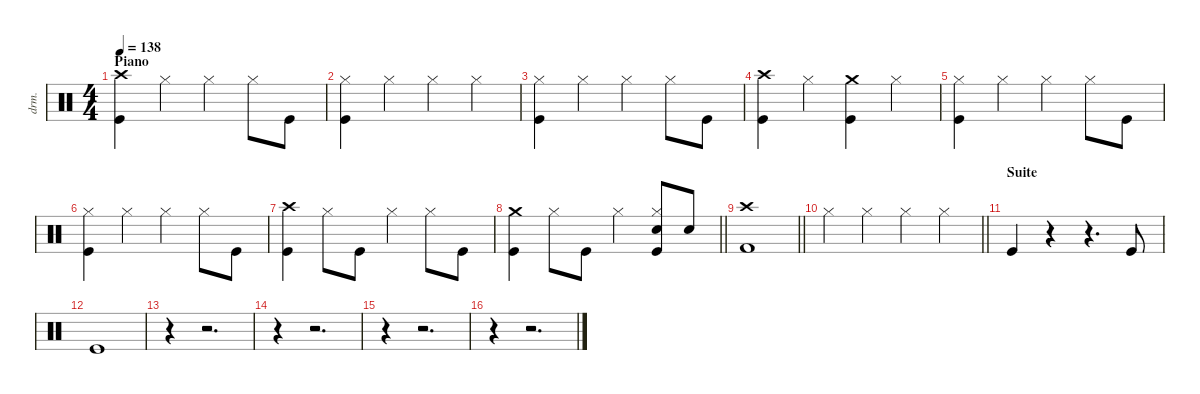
\defaultSystemsLayout 4
\hideDynamics
\bracketExtendMode nobrackets
\track ("Percussions" "drm.") {instrument percussion}
\staff {score}
\articulation defaults
\ts (4 4)
\section ("" "Piano")
\tempo 138
\clef neutral
\ks aminor
("Crash high (hit)" "Kick (hit)").4{dy f} "Hi-Hat (closed)".4 "Hi-Hat (closed)".4 "Hi-Hat (closed)".8 "Kick (hit)".8 |
("Hi-Hat (closed)" "Kick (hit)").4 "Hi-Hat (closed)".4 "Hi-Hat (closed)".4 "Hi-Hat (closed)".4 |
("Hi-Hat (closed)" "Kick (hit)").4 "Hi-Hat (closed)".4 "Hi-Hat (closed)".4 "Hi-Hat (closed)".8 "Kick (hit)".8 |
("Crash high (hit)" "Kick (hit)").4 "Hi-Hat (closed)".4 ("Crash medium (hit)" "Kick (hit)").4 "Hi-Hat (closed)".4 |
("Hi-Hat (closed)" "Kick (hit)").4 "Hi-Hat (closed)".4 "Hi-Hat (closed)".4 "Hi-Hat (closed)".8 "Kick (hit)".8 |
("Hi-Hat (closed)" "Kick (hit)").4 "Hi-Hat (closed)".4 "Hi-Hat (closed)".4 "Hi-Hat (closed)".8 "Kick (hit)".8 |
("Crash high (hit)" "Kick (hit)").4 "Hi-Hat (closed)".8 "Kick (hit)".8 "Hi-Hat (closed)".4 "Hi-Hat (closed)".8 "Kick (hit)".8 |
\barLineRight lightlight
("Crash medium (hit)" "Kick (hit)").4 "Hi-Hat (closed)".8 "Kick (hit)".8 "Hi-Hat (closed)".4 ("Hi-Hat (closed)" "Snare (hit) 2" "Kick (hit)").8 "Snare (hit) 2".8 |
\barLineRight lightlight
("Crash high (hit)" "Kick (hit) 2").1 |
\barLineRight lightlight "Hi-Hat (closed)".4 "Hi-Hat (closed)".4 "Hi-Hat (closed)".4 "Hi-Hat (closed)".4
|
\section ("" "Suite")
"Kick (hit)".4 r.4 r.4{d} "Kick (hit)".8 |
"Kick (hit)".1 |
r.4 r.2{d} |
r.4 r.2{d} |
r.4 r.2{d} |
r.4 r.2{d}
